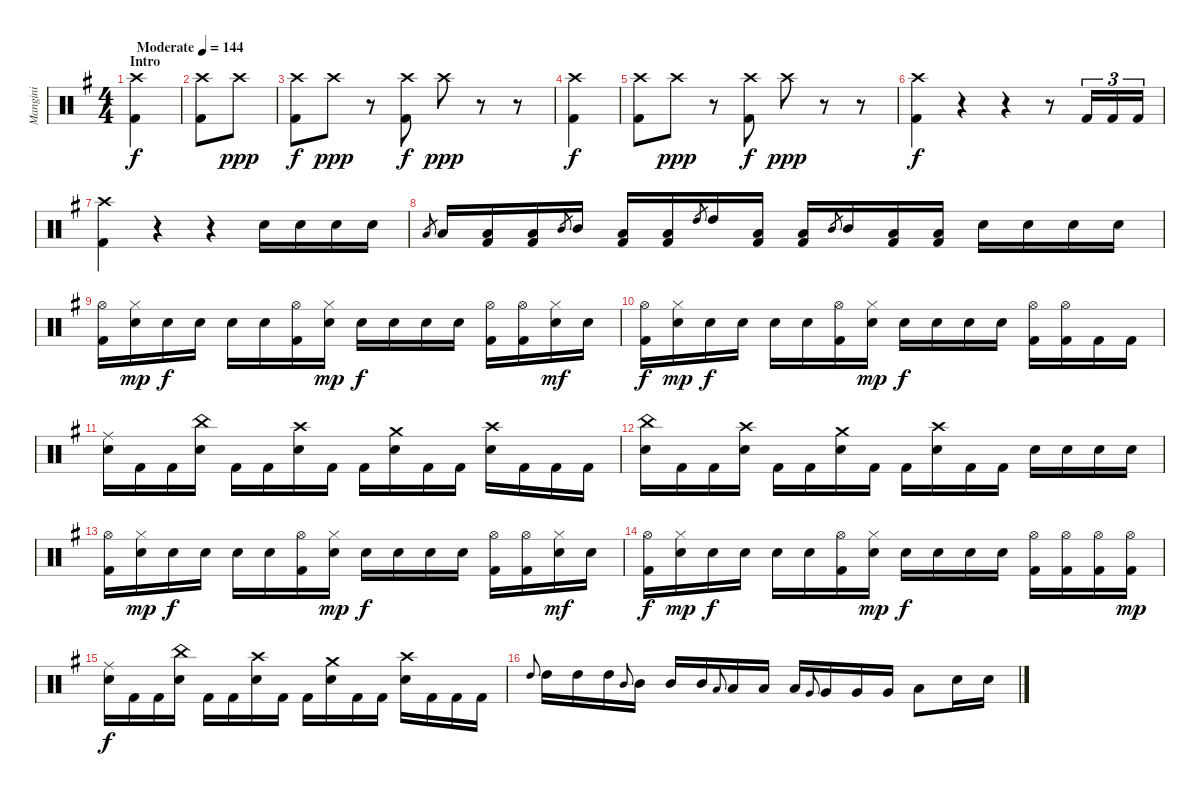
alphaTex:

\track ("Mangini" "Mangini") {instrument percussion}
\staff {score}
\articulation defaults
\ts (4 4)
\section ("" "Intro")
\tempo (144 "Moderate")
\clef neutral
\ks eminor
("Crash high (hit)" "Kick (hit) 2").4{dy f} |
("Crash high (hit)" "Kick (hit) 2").8 "Crash high (hit)".8{dy ppp} |
("Crash high (hit)" "Kick (hit) 2").8{dy f} "Crash high (hit)".8{dy ppp} r.8 ("Crash high (hit)" "Kick (hit) 2").8{dy f} "Crash high (hit)".8{dy ppp} r.8 r.8 |
("Crash high (hit)" "Kick (hit) 2").4{dy f} |
("Crash high (hit)" "Kick (hit) 2").8 "Crash high (hit)".8{dy ppp} r.8 ("Crash high (hit)" "Kick (hit) 2").8{dy f} "Crash high (hit)".8{dy ppp} r.8 r.8 |
("Crash high (hit)" "Kick (hit) 2").4{dy f} r.4 r.4 r.8 "Kick (hit) 2".16{tu (3 2)} "Kick (hit) 2".16{tu (3 2)} "Kick (hit) 2".16{tu (3 2)} |
("Crash high (hit)" "Kick (hit) 2").4 r.4 r.4 "Snare (hit) 2".16 "Snare (hit) 2".16 "Snare (hit) 2".16 "Snare (hit) 2".16 |
"Low Tom (hit)".8{gr} "Low Tom (hit)".16 ("Low Floor Tom (hit)" "Kick (hit) 2").16 ("Low Floor Tom (hit)" "Kick (hit) 2").16 "Mid Tom (hit)".8{gr} "Mid Tom (hit)".16 ("Low Floor Tom (hit)" "Kick (hit) 2").16 ("Low Floor Tom (hit)" "Kick (hit) 2").16 "High Tom (hit)".8{gr} "High Tom (hit)".16 ("Low Floor Tom (hit)" "Kick (hit) 2").16 ("Low Floor Tom (hit)" "Kick (hit) 2").16 "Mid Tom (hit)".8{gr} "Mid Tom (hit)".16 ("Low Floor Tom (hit)" "Kick (hit) 2").16 ("Low Floor Tom (hit)" "Kick (hit) 2").16 "Snare (hit) 2".16 "Snare (hit) 2".16 "Snare (hit) 2".16 "Snare (hit) 2".16 |
("Hi-Hat (open)" "Kick (hit) 2").16 ("Hi-Hat (closed)" "Snare (hit) 2").16{dy mp} "Snare (hit) 2".16{dy f} "Snare (hit) 2".16 "Snare (hit) 2".16 "Snare (hit) 2".16 ("Hi-Hat (open)" "Kick (hit) 2").16 ("Hi-Hat (closed)" "Snare (hit) 2").16{dy mp} "Snare (hit) 2".16{dy f} "Snare (hit) 2".16 "Snare (hit) 2".16 "Snare (hit) 2".16 ("Hi-Hat (open)" "Kick (hit) 2").16 ("Hi-Hat (open)" "Kick (hit) 2").16 ("Hi-Hat (closed)" "Snare (hit) 2").16{dy mf} "Snare (hit) 2".16 |
("Hi-Hat (open)" "Kick (hit) 2").16{dy f} ("Hi-Hat (closed)" "Snare (hit) 2").16{dy mp} "Snare (hit) 2".16{dy f} "Snare (hit) 2".16 "Snare (hit) 2".16 "Snare (hit) 2".16 ("Hi-Hat (open)" "Kick (hit) 2").16 ("Hi-Hat (closed)" "Snare (hit) 2").16{dy mp} "Snare (hit) 2".16{dy f} "Snare (hit) 2".16 "Snare (hit) 2".16 "Snare (hit) 2".16 ("Hi-Hat (open)" "Kick (hit) 2").16 ("Hi-Hat (open)" "Kick (hit) 2").16 "Kick (hit) 2".16 "Kick (hit) 2".16 |
("Ride (middle)" "Snare (hit) 2").16 "Kick (hit) 2".16 "Kick (hit) 2".16 ("China (hit)" "Snare (hit) 2").16 "Kick (hit) 2".16 "Kick (hit) 2".16 ("Crash high (hit)" "Snare (hit) 2").16 "Kick (hit) 2".16 "Kick (hit) 2".16 ("Crash medium (hit)" "Snare (hit) 2").16 "Kick (hit) 2".16 "Kick (hit) 2".16 ("Crash high (hit)" "Snare (hit) 2").16 "Kick (hit) 2".16 "Kick (hit) 2".16 "Kick (hit) 2".16 |
("China (hit)" "Snare (hit) 2").16 "Kick (hit) 2".16 "Kick (hit) 2".16 ("Crash high (hit)" "Snare (hit) 2").16 "Kick (hit) 2".16 "Kick (hit) 2".16 ("Crash medium (hit)" "Snare (hit) 2").16 "Kick (hit) 2".16 "Kick (hit) 2".16 ("Crash high (hit)" "Snare (hit) 2").16 "Kick (hit) 2".16 "Kick (hit) 2".16 "Snare (hit) 2".16 "Snare (hit) 2".16 "Snare (hit) 2".16 "Snare (hit) 2".16 |
("Hi-Hat (open)" "Kick (hit) 2").16 ("Hi-Hat (closed)" "Snare (hit) 2").16{dy mp} "Snare (hit) 2".16{dy f} "Snare (hit) 2".16 "Snare (hit) 2".16 "Snare (hit) 2".16 ("Hi-Hat (open)" "Kick (hit) 2").16 ("Hi-Hat (closed)" "Snare (hit) 2").16{dy mp} "Snare (hit) 2".16{dy f} "Snare (hit) 2".16 "Snare (hit) 2".16 "Snare (hit) 2".16 ("Hi-Hat (open)" "Kick (hit) 2").16 ("Hi-Hat (open)" "Kick (hit) 2").16 ("Hi-Hat (closed)" "Snare (hit) 2").16{dy mf} "Snare (hit) 2".16 |
("Hi-Hat (open)" "Kick (hit) 2").16{dy f} ("Hi-Hat (closed)" "Snare (hit) 2").16{dy mp} "Snare (hit) 2".16{dy f} "Snare (hit) 2".16 "Snare (hit) 2".16 "Snare (hit) 2".16 ("Hi-Hat (open)" "Kick (hit) 2").16 ("Hi-Hat (closed)" "Snare (hit) 2").16{dy mp} "Snare (hit) 2".16{dy f} "Snare (hit) 2".16 "Snare (hit) 2".16 "Snare (hit) 2".16 ("Hi-Hat (open)" "Kick (hit) 2").16 ("Hi-Hat (open)" "Kick (hit) 2").16 ("Hi-Hat (open)" "Kick (hit) 2").16 ("Hi-Hat (open)" "Kick (hit) 2").16{dy mp} |
("Ride (middle)" "Snare (hit) 2").16{dy f} "Kick (hit) 2".16 "Kick (hit) 2".16 ("China (hit)" "Snare (hit) 2").16 "Kick (hit) 2".16 "Kick (hit) 2".16 ("Crash high (hit)" "Snare (hit) 2").16 "Kick (hit) 2".16 "Kick (hit) 2".16 ("Crash medium (hit)" "Snare (hit) 2").16 "Kick (hit) 2".16 "Kick (hit) 2".16 ("Crash high (hit)" "Snare (hit) 2").16 "Kick (hit) 2".16 "Kick (hit) 2".16 "Kick (hit) 2".16 |
"High Tom (hit)".8{gr onbeat} "High Tom (hit)".16 "High Tom (hit)".16 "High Tom (hit)".16 "Mid Tom (hit)".8{gr onbeat} "Mid Tom (hit)".16 "Mid Tom (hit)".16 "Mid Tom (hit)".16 "Low Tom (hit)".8{gr onbeat} "Low Tom (hit)".16 "Low Tom (hit)".16 "Low Tom (hit)".16 "Very Low Tom (hit)".8{gr onbeat} "Very Low Tom (hit)".16 "Very Low Tom (hit)".16 "Very Low Tom (hit)".16 "Low Floor Tom (hit)".8 "Snare (hit) 2".16 "Snare (hit) 2".16
